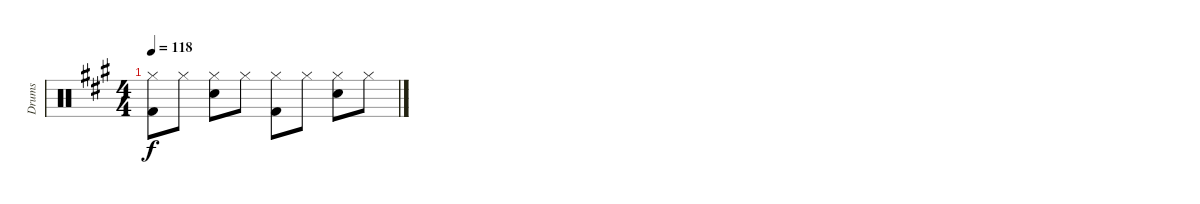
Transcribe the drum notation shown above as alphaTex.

\track ("Drums" "Drums") {instrument percussion}
\staff {score}
\articulation defaults
\ts (4 4)
\tempo 118
\clef neutral
\ks f#minor
("Hi-Hat (closed)" "Kick (hit) 2").8{dy f} "Hi-Hat (closed)".8 ("Hi-Hat (closed)" "Snare (hit) 2").8 "Hi-Hat (closed)".8 ("Hi-Hat (closed)" "Kick (hit) 2").8 "Hi-Hat (closed)".8 ("Hi-Hat (closed)" "Snare (hit) 2").8 "Hi-Hat (closed)".8
